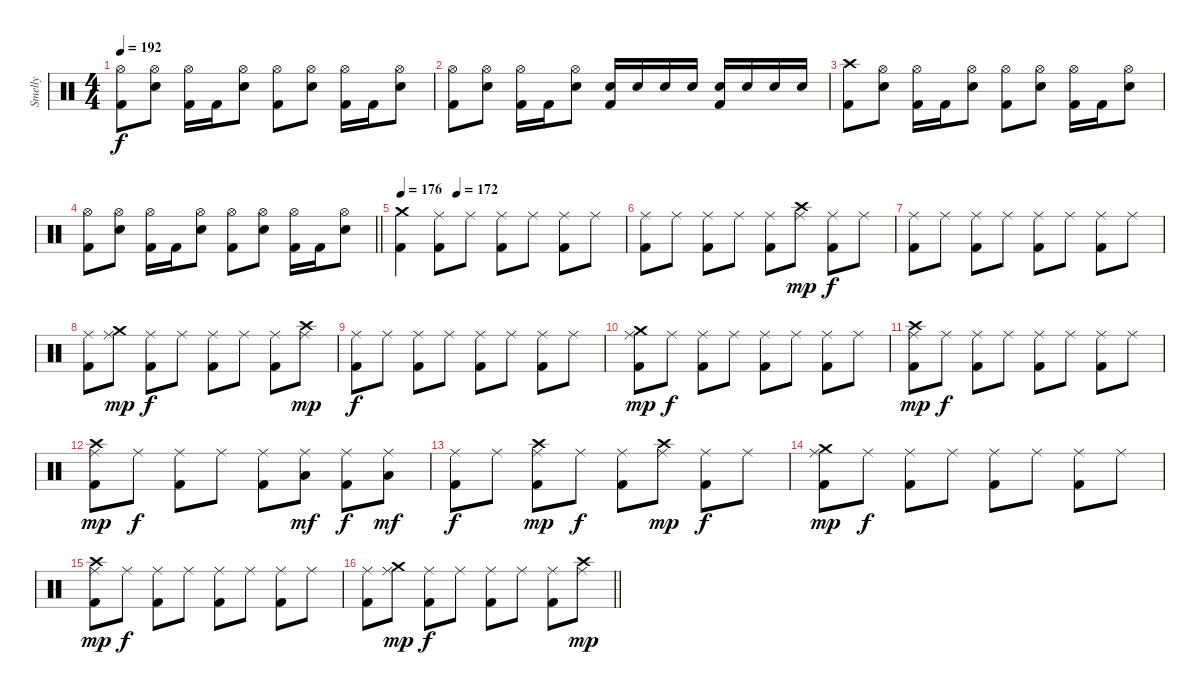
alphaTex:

\track ("Smelly" "Smelly") {instrument percussion}
\staff {score}
\articulation defaults
\ts (4 4)
\tempo 192
\clef neutral
\ks c
("Hi-Hat (open)" "Kick (hit) 2").8{dy f} ("Hi-Hat (open)" "Electric Snare (hit)").8 ("Hi-Hat (open)" "Kick (hit) 2").16 "Kick (hit) 2".16 ("Hi-Hat (open)" "Electric Snare (hit)").8 ("Hi-Hat (open)" "Kick (hit) 2").8 ("Hi-Hat (open)" "Electric Snare (hit)").8 ("Hi-Hat (open)" "Kick (hit) 2").16 "Kick (hit) 2".16 ("Hi-Hat (open)" "Electric Snare (hit)").8 |
("Hi-Hat (open)" "Kick (hit) 2").8 ("Hi-Hat (open)" "Electric Snare (hit)").8 ("Hi-Hat (open)" "Kick (hit) 2").16 "Kick (hit) 2".16 ("Hi-Hat (open)" "Electric Snare (hit)").8 ("Electric Snare (hit)" "Kick (hit) 2").16 "Electric Snare (hit)".16 "Electric Snare (hit)".16 "Electric Snare (hit)".16 ("Electric Snare (hit)" "Kick (hit) 2").16 "Electric Snare (hit)".16 "Electric Snare (hit)".16 "Electric Snare (hit)".16 |
("Crash high (hit)" "Kick (hit) 2").8 ("Hi-Hat (open)" "Electric Snare (hit)").8 ("Hi-Hat (open)" "Kick (hit) 2").16 "Kick (hit) 2".16 ("Hi-Hat (open)" "Electric Snare (hit)").8 ("Hi-Hat (open)" "Kick (hit) 2").8 ("Hi-Hat (open)" "Electric Snare (hit)").8 ("Hi-Hat (open)" "Kick (hit) 2").16 "Kick (hit) 2".16 ("Hi-Hat (open)" "Electric Snare (hit)").8 |
\barLineRight lightlight
("Hi-Hat (open)" "Kick (hit) 2").8 ("Hi-Hat (open)" "Electric Snare (hit)").8 ("Hi-Hat (open)" "Kick (hit) 2").16 "Kick (hit) 2".16 ("Hi-Hat (open)" "Electric Snare (hit)").8 ("Hi-Hat (open)" "Kick (hit) 2").8 ("Hi-Hat (open)" "Electric Snare (hit)").8 ("Hi-Hat (open)" "Kick (hit) 2").16 "Kick (hit) 2".16 ("Hi-Hat (open)" "Electric Snare (hit)").8 |
\section ("" "")
\tempo 176
\tempo (172 0.25)
("Crash medium (hit)" "Kick (hit) 2").4 ("Ride (middle)" "Kick (hit) 2").8 "Ride (middle)".8 ("Ride (middle)" "Kick (hit) 2").8 "Ride (middle)".8 ("Ride (middle)" "Kick (hit) 2").8 "Ride (middle)".8 |
("Ride (middle)" "Kick (hit) 2").8 "Ride (middle)".8 ("Ride (middle)" "Kick (hit) 2").8 "Ride (middle)".8 ("Ride (middle)" "Kick (hit) 2").8 ("Ride (middle)" "Crash high (hit)").8{dy mp} ("Ride (middle)" "Kick (hit) 2").8{dy f} "Ride (middle)".8 |
("Ride (middle)" "Kick (hit) 2").8 "Ride (middle)".8 ("Ride (middle)" "Kick (hit) 2").8 "Ride (middle)".8 ("Ride (middle)" "Kick (hit) 2").8 "Ride (middle)".8 ("Ride (middle)" "Kick (hit) 2").8 "Ride (middle)".8 |
("Ride (middle)" "Kick (hit) 2").8 ("Ride (middle)" "Crash medium (hit)").8{dy mp} ("Ride (middle)" "Kick (hit) 2").8{dy f} "Ride (middle)".8 ("Ride (middle)" "Kick (hit) 2").8 "Ride (middle)".8 ("Ride (middle)" "Kick (hit) 2").8 ("Ride (middle)" "Crash high (hit)").8{dy mp} |
("Ride (middle)" "Kick (hit) 2").8{dy f} "Ride (middle)".8 ("Ride (middle)" "Kick (hit) 2").8 "Ride (middle)".8 ("Ride (middle)" "Kick (hit) 2").8 "Ride (middle)".8 ("Ride (middle)" "Kick (hit) 2").8 "Ride (middle)".8 |
("Ride (middle)" "Crash medium (hit)" "Kick (hit) 2").8{dy mp} "Ride (middle)".8{dy f} ("Ride (middle)" "Kick (hit) 2").8 "Ride (middle)".8 ("Ride (middle)" "Kick (hit) 2").8 "Ride (middle)".8 ("Ride (middle)" "Kick (hit) 2").8 "Ride (middle)".8 |
("Ride (middle)" "Crash high (hit)" "Kick (hit) 2").8{dy mp} "Ride (middle)".8{dy f} ("Ride (middle)" "Kick (hit) 2").8 "Ride (middle)".8 ("Ride (middle)" "Kick (hit) 2").8 "Ride (middle)".8 ("Ride (middle)" "Kick (hit) 2").8 "Ride (middle)".8 |
("Ride (middle)" "Crash high (hit)" "Kick (hit) 2").8{dy mp} "Ride (middle)".8{dy f} ("Ride (middle)" "Kick (hit) 2").8 "Ride (middle)".8 ("Ride (middle)" "Kick (hit) 2").8 ("Ride (middle)" "Low Tom (hit)").8{dy mf} ("Ride (middle)" "Kick (hit) 2").8{dy f} ("Ride (middle)" "Low Floor Tom (hit)").8{dy mf} |
("Ride (middle)" "Kick (hit) 2").8{dy f} "Ride (middle)".8 ("Ride (middle)" "Crash high (hit)" "Kick (hit) 2").8{dy mp} "Ride (middle)".8{dy f} ("Ride (middle)" "Kick (hit) 2").8 ("Ride (middle)" "Crash high (hit)").8{dy mp} ("Ride (middle)" "Kick (hit) 2").8{dy f} "Ride (middle)".8 |
("Ride (middle)" "Crash medium (hit)" "Kick (hit) 2").8{dy mp} "Ride (middle)".8{dy f} ("Ride (middle)" "Kick (hit) 2").8 "Ride (middle)".8 ("Ride (middle)" "Kick (hit) 2").8 "Ride (middle)".8 ("Ride (middle)" "Kick (hit) 2").8 "Ride (middle)".8 |
("Ride (middle)" "Crash high (hit)" "Kick (hit) 2").8{dy mp} "Ride (middle)".8{dy f} ("Ride (middle)" "Kick (hit) 2").8 "Ride (middle)".8 ("Ride (middle)" "Kick (hit) 2").8 "Ride (middle)".8 ("Ride (middle)" "Kick (hit) 2").8 "Ride (middle)".8 |
\barLineRight lightlight
("Ride (middle)" "Kick (hit) 2").8 ("Ride (middle)" "Crash medium (hit)").8{dy mp} ("Ride (middle)" "Kick (hit) 2").8{dy f} "Ride (middle)".8 ("Ride (middle)" "Kick (hit) 2").8 "Ride (middle)".8 ("Ride (middle)" "Kick (hit) 2").8 ("Ride (middle)" "Crash high (hit)").8{dy mp}
